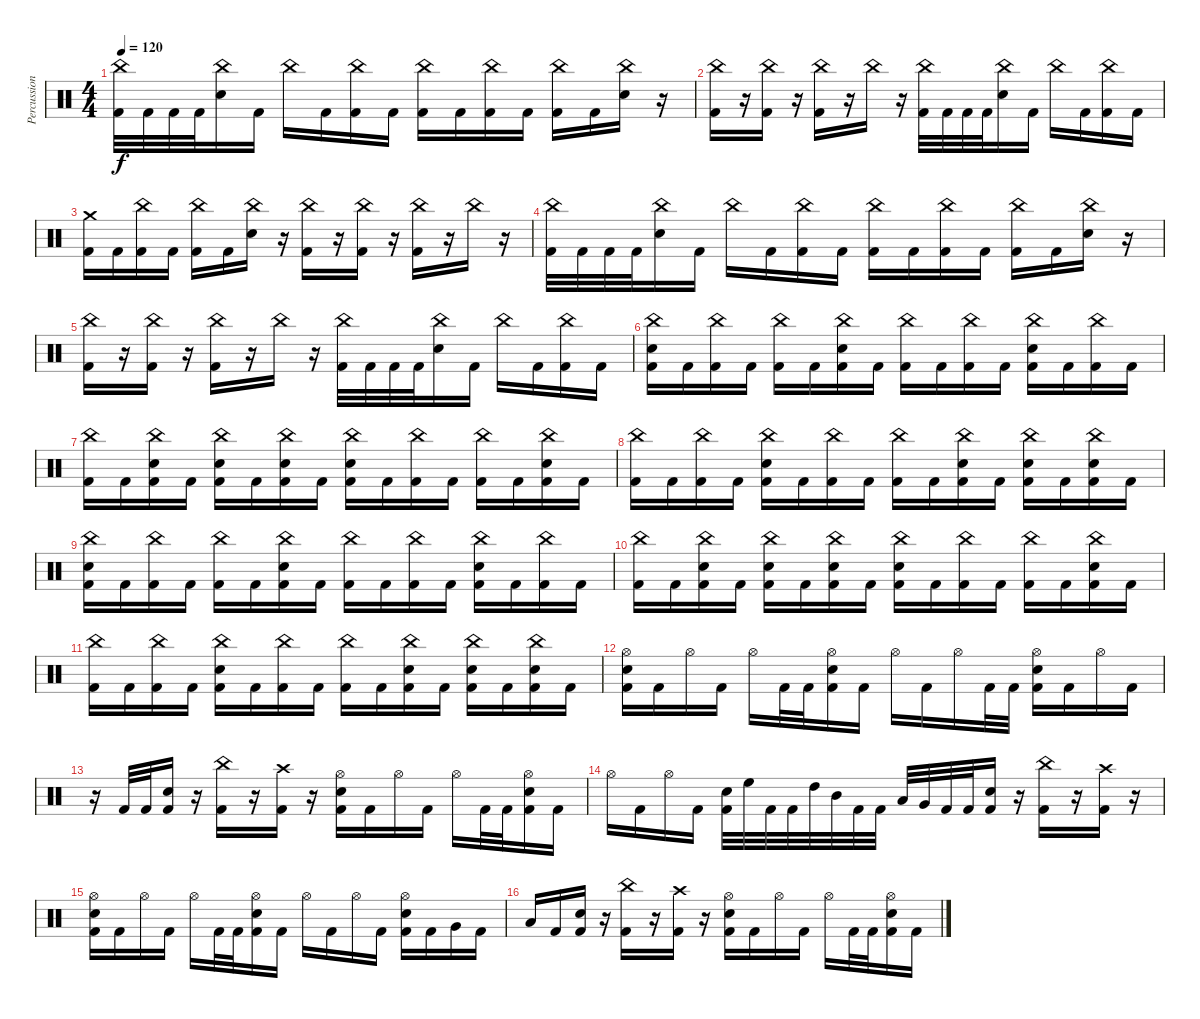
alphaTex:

\track ("Percussion" "Percussion") {instrument percussion}
\staff {score}
\articulation defaults
\ts (4 4)
\tempo 120
\clef neutral
\ks c
("China (hit)" "Kick (hit) 2").32{dy f} "Kick (hit) 2".32 "Kick (hit) 2".32 "Kick (hit) 2".32 ("China (hit)" "Electric Snare (hit)").16 "Kick (hit) 2".16 "China (hit)".16 "Kick (hit) 2".16 ("China (hit)" "Kick (hit) 2").16 "Kick (hit) 2".16 ("China (hit)" "Kick (hit) 2").16 "Kick (hit) 2".16 ("China (hit)" "Kick (hit) 2").16 "Kick (hit) 2".16 ("China (hit)" "Kick (hit) 2").16 "Kick (hit) 2".16 ("China (hit)" "Electric Snare (hit)").16 r.16 |
("China (hit)" "Kick (hit) 2").16 r.16 ("China (hit)" "Kick (hit) 2").16 r.16 ("China (hit)" "Kick (hit) 2").16 r.16 "China (hit)".16 r.16 ("China (hit)" "Kick (hit) 2").32 "Kick (hit) 2".32 "Kick (hit) 2".32 "Kick (hit) 2".32 ("China (hit)" "Electric Snare (hit)").16 "Kick (hit) 2".16 "China (hit)".16 "Kick (hit) 2".16 ("China (hit)" "Kick (hit) 2").16 "Kick (hit) 2".16 |
("Crash medium (hit)" "Kick (hit) 2").16 "Kick (hit) 2".16 ("China (hit)" "Kick (hit) 2").16 "Kick (hit) 2".16 ("China (hit)" "Kick (hit) 2").16 "Kick (hit) 2".16 ("China (hit)" "Electric Snare (hit)").16 r.16 ("China (hit)" "Kick (hit) 2").16 r.16 ("China (hit)" "Kick (hit) 2").16 r.16 ("China (hit)" "Kick (hit) 2").16 r.16 "China (hit)".16 r.16 |
("China (hit)" "Kick (hit) 2").32 "Kick (hit) 2".32 "Kick (hit) 2".32 "Kick (hit) 2".32 ("China (hit)" "Electric Snare (hit)").16 "Kick (hit) 2".16 "China (hit)".16 "Kick (hit) 2".16 ("China (hit)" "Kick (hit) 2").16 "Kick (hit) 2".16 ("China (hit)" "Kick (hit) 2").16 "Kick (hit) 2".16 ("China (hit)" "Kick (hit) 2").16 "Kick (hit) 2".16 ("China (hit)" "Kick (hit) 2").16 "Kick (hit) 2".16 ("China (hit)" "Electric Snare (hit)").16 r.16 |
("China (hit)" "Kick (hit) 2").16 r.16 ("China (hit)" "Kick (hit) 2").16 r.16 ("China (hit)" "Kick (hit) 2").16 r.16 "China (hit)".16 r.16 ("China (hit)" "Kick (hit) 2").32 "Kick (hit) 2".32 "Kick (hit) 2".32 "Kick (hit) 2".32 ("China (hit)" "Electric Snare (hit)").16 "Kick (hit) 2".16 "China (hit)".16 "Kick (hit) 2".16 ("China (hit)" "Kick (hit) 2").16 "Kick (hit) 2".16 |
("China (hit)" "Electric Snare (hit)" "Kick (hit) 2").16 "Kick (hit) 2".16 ("China (hit)" "Kick (hit) 2").16 "Kick (hit) 2".16 ("China (hit)" "Kick (hit) 2").16 "Kick (hit) 2".16 ("China (hit)" "Electric Snare (hit)" "Kick (hit) 2").16 "Kick (hit) 2".16 ("China (hit)" "Kick (hit) 2").16 "Kick (hit) 2".16 ("China (hit)" "Kick (hit) 2").16 "Kick (hit) 2".16 ("China (hit)" "Electric Snare (hit)" "Kick (hit) 2").16 "Kick (hit) 2".16 ("China (hit)" "Kick (hit) 2").16 "Kick (hit) 2".16 |
("China (hit)" "Kick (hit) 2").16 "Kick (hit) 2".16 ("China (hit)" "Electric Snare (hit)" "Kick (hit) 2").16 "Kick (hit) 2".16 ("China (hit)" "Electric Snare (hit)" "Kick (hit) 2").16 "Kick (hit) 2".16 ("China (hit)" "Electric Snare (hit)" "Kick (hit) 2").16 "Kick (hit) 2".16 ("China (hit)" "Electric Snare (hit)" "Kick (hit) 2").16 "Kick (hit) 2".16 ("China (hit)" "Kick (hit) 2").16 "Kick (hit) 2".16 ("China (hit)" "Kick (hit) 2").16 "Kick (hit) 2".16 ("China (hit)" "Electric Snare (hit)" "Kick (hit) 2").16 "Kick (hit) 2".16 |
("China (hit)" "Kick (hit) 2").16 "Kick (hit) 2".16 ("China (hit)" "Kick (hit) 2").16 "Kick (hit) 2".16 ("China (hit)" "Electric Snare (hit)" "Kick (hit) 2").16 "Kick (hit) 2".16 ("China (hit)" "Kick (hit) 2").16 "Kick (hit) 2".16 ("China (hit)" "Kick (hit) 2").16 "Kick (hit) 2".16 ("China (hit)" "Electric Snare (hit)" "Kick (hit) 2").16 "Kick (hit) 2".16 ("China (hit)" "Electric Snare (hit)" "Kick (hit) 2").16 "Kick (hit) 2".16 ("China (hit)" "Electric Snare (hit)" "Kick (hit) 2").16 "Kick (hit) 2".16 |
("China (hit)" "Electric Snare (hit)" "Kick (hit) 2").16 "Kick (hit) 2".16 ("China (hit)" "Kick (hit) 2").16 "Kick (hit) 2".16 ("China (hit)" "Kick (hit) 2").16 "Kick (hit) 2".16 ("China (hit)" "Electric Snare (hit)" "Kick (hit) 2").16 "Kick (hit) 2".16 ("China (hit)" "Kick (hit) 2").16 "Kick (hit) 2".16 ("China (hit)" "Kick (hit) 2").16 "Kick (hit) 2".16 ("China (hit)" "Electric Snare (hit)" "Kick (hit) 2").16 "Kick (hit) 2".16 ("China (hit)" "Kick (hit) 2").16 "Kick (hit) 2".16 |
("China (hit)" "Kick (hit) 2").16 "Kick (hit) 2".16 ("China (hit)" "Electric Snare (hit)" "Kick (hit) 2").16 "Kick (hit) 2".16 ("China (hit)" "Electric Snare (hit)" "Kick (hit) 2").16 "Kick (hit) 2".16 ("China (hit)" "Electric Snare (hit)" "Kick (hit) 2").16 "Kick (hit) 2".16 ("China (hit)" "Electric Snare (hit)" "Kick (hit) 2").16 "Kick (hit) 2".16 ("China (hit)" "Kick (hit) 2").16 "Kick (hit) 2".16 ("China (hit)" "Kick (hit) 2").16 "Kick (hit) 2".16 ("China (hit)" "Electric Snare (hit)" "Kick (hit) 2").16 "Kick (hit) 2".16 |
("China (hit)" "Kick (hit) 2").16 "Kick (hit) 2".16 ("China (hit)" "Kick (hit) 2").16 "Kick (hit) 2".16 ("China (hit)" "Electric Snare (hit)" "Kick (hit) 2").16 "Kick (hit) 2".16 ("China (hit)" "Kick (hit) 2").16 "Kick (hit) 2".16 ("China (hit)" "Kick (hit) 2").16 "Kick (hit) 2".16 ("China (hit)" "Electric Snare (hit)" "Kick (hit) 2").16 "Kick (hit) 2".16 ("China (hit)" "Electric Snare (hit)" "Kick (hit) 2").16 "Kick (hit) 2".16 ("China (hit)" "Electric Snare (hit)" "Kick (hit) 2").16 "Kick (hit) 2".16 |
("Hi-Hat (open)" "Electric Snare (hit)" "Kick (hit) 2").16 "Kick (hit) 2".16 "Hi-Hat (open)".16 "Kick (hit) 2".16 "Hi-Hat (open)".16 "Kick (hit) 2".32 "Kick (hit) 2".32 ("Hi-Hat (open)" "Electric Snare (hit)" "Kick (hit) 2").16 "Kick (hit) 2".16 "Hi-Hat (open)".16 "Kick (hit) 2".16 "Hi-Hat (open)".16 "Kick (hit) 2".32 "Kick (hit) 2".32 ("Hi-Hat (open)" "Electric Snare (hit)" "Kick (hit) 2").16 "Kick (hit) 2".16 "Hi-Hat (open)".16 "Kick (hit) 2".16 |
r.16 "Kick (hit) 2".32 "Kick (hit) 2".32 ("Electric Snare (hit)" "Kick (hit) 2").16 r.16 ("China (hit)" "Kick (hit) 2").16 r.16 ("Crash high (hit)" "Kick (hit) 2").16 r.16 ("Hi-Hat (open)" "Electric Snare (hit)" "Kick (hit) 2").16 "Kick (hit) 2".16 "Hi-Hat (open)".16 "Kick (hit) 2".16 "Hi-Hat (open)".16 "Kick (hit) 2".32 "Kick (hit) 2".32 ("Hi-Hat (open)" "Electric Snare (hit)" "Kick (hit) 2").16 "Kick (hit) 2".16 |
"Hi-Hat (open)".16 "Kick (hit) 2".16 "Hi-Hat (open)".16 "Kick (hit) 2".16 ("Electric Snare (hit)" "Kick (hit) 2").32 "High Floor Tom (hit)".32 "Kick (hit) 2".32 "Kick (hit) 2".32 "High Tom (hit)".32 "Mid Tom (hit)".32 "Kick (hit) 2".32 "Kick (hit) 2".32 "Low Tom (hit)".32 "Very Low Tom (hit)".32 "Kick (hit) 2".32 "Kick (hit) 2".32 ("Electric Snare (hit)" "Kick (hit) 2").16 r.16 ("China (hit)" "Kick (hit) 2").16 r.16 ("Crash high (hit)" "Kick (hit) 2").16 r.16 |
("Hi-Hat (open)" "Electric Snare (hit)" "Kick (hit) 2").16 "Kick (hit) 2".16 "Hi-Hat (open)".16 "Kick (hit) 2".16 "Hi-Hat (open)".16 "Kick (hit) 2".32 "Kick (hit) 2".32 ("Hi-Hat (open)" "Electric Snare (hit)" "Kick (hit) 2").16 "Kick (hit) 2".16 "Hi-Hat (open)".16 "Kick (hit) 2".16 "Hi-Hat (open)".16 "Kick (hit) 2".16 ("Hi-Hat (open)" "Electric Snare (hit)" "Kick (hit) 2").16 "Kick (hit) 2".16 "Very Low Tom (hit)".16 "Kick (hit) 2".16 |
"Low Floor Tom (hit)".16 "Kick (hit) 2".16 ("Electric Snare (hit)" "Kick (hit) 2").16 r.16 ("China (hit)" "Kick (hit) 2").16 r.16 ("Crash high (hit)" "Kick (hit) 2").16 r.16 ("Hi-Hat (open)" "Electric Snare (hit)" "Kick (hit) 2").16 "Kick (hit) 2".16 "Hi-Hat (open)".16 "Kick (hit) 2".16 "Hi-Hat (open)".16 "Kick (hit) 2".32 "Kick (hit) 2".32 ("Hi-Hat (open)" "Electric Snare (hit)" "Kick (hit) 2").16 "Kick (hit) 2".16
